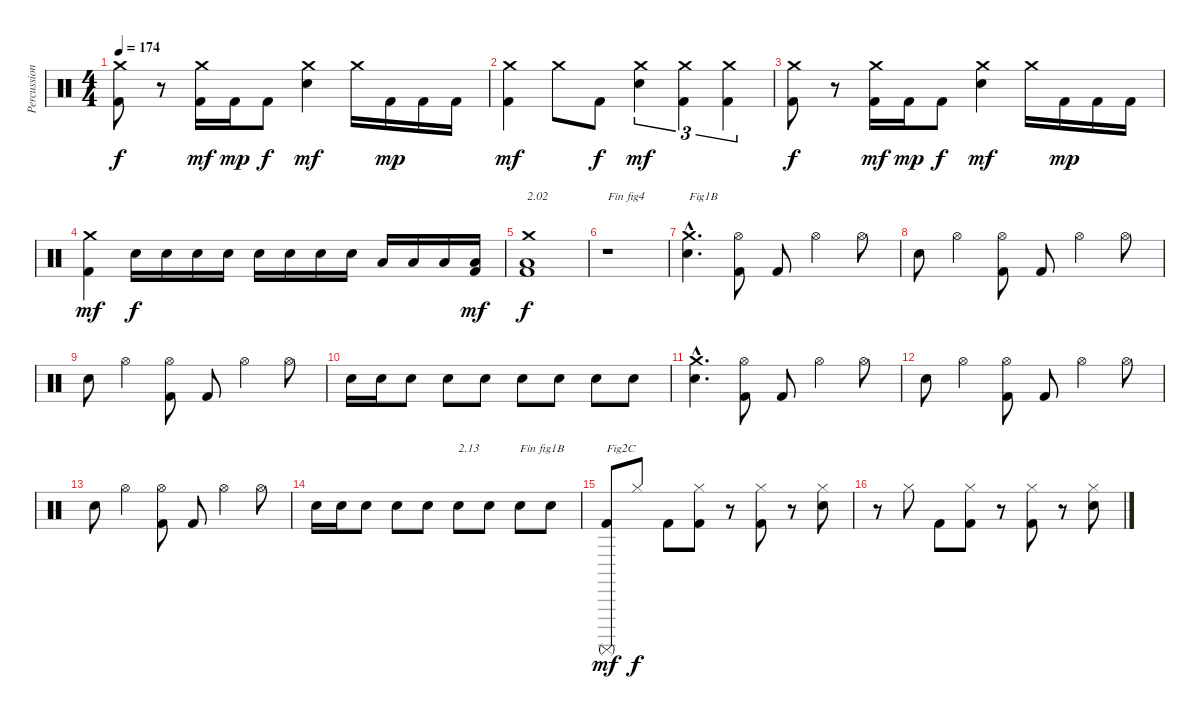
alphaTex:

\track ("Percussions" "Percussion") {instrument percussion}
\staff {score}
\articulation defaults
\ts (4 4)
\tempo 174
\clef neutral
\ks c
("Kick (hit) 2" "Crash medium (hit)").8{dy f} r.8 ("Kick (hit) 2" "Crash medium (hit)").16{dy mf} "Kick (hit) 2".16{dy mp} "Kick (hit) 2".8{dy f} ("Electric Snare (hit)" "Crash medium (hit)").4{dy mf} "Crash medium (hit)".16 "Kick (hit) 2".16{dy mp} "Kick (hit) 2".16 "Kick (hit) 2".16 |
("Kick (hit) 2" "Crash medium (hit)").4{dy mf} "Crash medium (hit)".8 "Kick (hit) 2".8{dy f} ("Electric Snare (hit)" "Crash medium (hit)").4{tu (3 2) dy mf} ("Kick (hit) 2" "Crash medium (hit)").4{tu (3 2)} ("Kick (hit) 2" "Crash medium (hit)").4{tu (3 2)} |
("Kick (hit) 2" "Crash medium (hit)").8{dy f} r.8 ("Kick (hit) 2" "Crash medium (hit)").16{dy mf} "Kick (hit) 2".16{dy mp} "Kick (hit) 2".8{dy f} ("Electric Snare (hit)" "Crash medium (hit)").4{dy mf} "Crash medium (hit)".16 "Kick (hit) 2".16{dy mp} "Kick (hit) 2".16 "Kick (hit) 2".16 |
("Kick (hit) 2" "Crash medium (hit)").4{dy mf} "Electric Snare (hit)".16{dy f} "Electric Snare (hit)".16 "Electric Snare (hit)".16 "Electric Snare (hit)".16 "Electric Snare (hit)".16 "Electric Snare (hit)".16 "Electric Snare (hit)".16 "Electric Snare (hit)".16 "Low Floor Tom (hit)".16 "Low Floor Tom (hit)".16 "Low Floor Tom (hit)".16 ("Kick (hit) 2" "Low Floor Tom (hit)").16{dy mf} |
("Kick (hit) 2" "Low Floor Tom (hit)" "Crash medium (hit)").1{txt "2.02" dy f} |
r.1{txt "Fin fig4"} |
("Electric Snare (hit)"{hac} "Crash medium (hit)"{hac}).4{d txt "Fig1B"} ("Kick (hit) 2" "Hi-Hat (open)").8 "Kick (hit) 2".8 "Hi-Hat (open)".4 "Hi-Hat (open)".8 |
"Electric Snare (hit)".8 "Hi-Hat (open)".4 ("Kick (hit) 2" "Hi-Hat (open)").8 "Kick (hit) 2".8 "Hi-Hat (open)".4 "Hi-Hat (open)".8 |
"Electric Snare (hit)".8 "Hi-Hat (open)".4 ("Kick (hit) 2" "Hi-Hat (open)").8 "Kick (hit) 2".8 "Hi-Hat (open)".4 "Hi-Hat (open)".8 |
"Electric Snare (hit)".16 "Electric Snare (hit)".16 "Electric Snare (hit)".8 "Electric Snare (hit)".8 "Electric Snare (hit)".8 "Electric Snare (hit)".8 "Electric Snare (hit)".8 "Electric Snare (hit)".8 "Electric Snare (hit)".8 |
("Electric Snare (hit)"{hac} "Crash medium (hit)"{hac}).4{d} ("Kick (hit) 2" "Hi-Hat (open)").8 "Kick (hit) 2".8 "Hi-Hat (open)".4 "Hi-Hat (open)".8 |
"Electric Snare (hit)".8 "Hi-Hat (open)".4 ("Kick (hit) 2" "Hi-Hat (open)").8 "Kick (hit) 2".8 "Hi-Hat (open)".4 "Hi-Hat (open)".8 |
"Electric Snare (hit)".8 "Hi-Hat (open)".4 ("Kick (hit) 2" "Hi-Hat (open)").8 "Kick (hit) 2".8 "Hi-Hat (open)".4 "Hi-Hat (open)".8 |
"Electric Snare (hit)".16 "Electric Snare (hit)".16 "Electric Snare (hit)".8 "Electric Snare (hit)".8 "Electric Snare (hit)".8 "Electric Snare (hit)".8{txt "2.13"} "Electric Snare (hit)".8 "Electric Snare (hit)".8{txt "Fin fig1B"} "Electric Snare (hit)".8 |
("Kick (hit) 2" "Surdo (mute)").8{txt "Fig2C" dy mf} "Hi-Hat (closed)".8{dy f} "Kick (hit) 2".8 ("Kick (hit) 2" "Hi-Hat (closed)").8 r.8 ("Kick (hit) 2" "Hi-Hat (closed)").8 r.8 ("Electric Snare (hit)" "Hi-Hat (closed)").8 |
r.8 "Hi-Hat (closed)".8 "Kick (hit) 2".8 ("Kick (hit) 2" "Hi-Hat (closed)").8 r.8 ("Kick (hit) 2" "Hi-Hat (closed)").8 r.8 ("Electric Snare (hit)" "Hi-Hat (closed)").8
